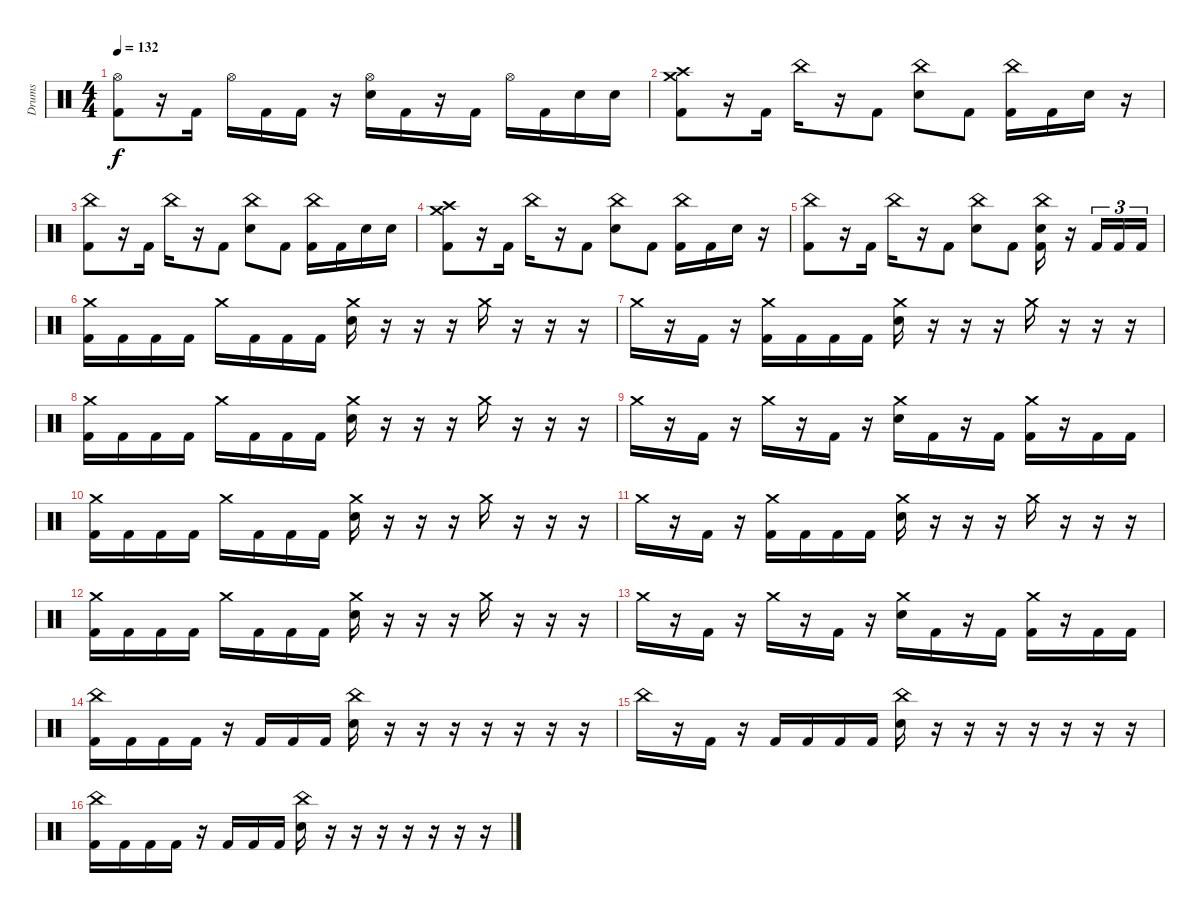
\track ("Drums" "Drums") {instrument percussion}
\staff {score}
\articulation defaults
\ts (4 4)
\tempo 132
\clef neutral
\ks c
("Hi-Hat (open)" "Kick (hit) 2").8{dy f} r.16 "Kick (hit) 2".16 "Hi-Hat (open)".16 "Kick (hit) 2".16 "Kick (hit) 2".16 r.16 ("Hi-Hat (open)" "Electric Snare (hit)").16 "Kick (hit) 2".16 r.16 "Kick (hit) 2".16 "Hi-Hat (open)".16 "Kick (hit) 2".16 "Electric Snare (hit)".16 "Electric Snare (hit)".16 |
("Crash medium (hit)" "Crash high (hit)" "Kick (hit) 2").8 r.16 "Kick (hit) 2".16 "China (hit)".16 r.16 "Kick (hit) 2".8 ("China (hit)" "Electric Snare (hit)").8 "Kick (hit) 2".8 ("China (hit)" "Kick (hit) 2").16 "Kick (hit) 2".16 "Electric Snare (hit)".16 r.16 |
("China (hit)" "Kick (hit) 2").8 r.16 "Kick (hit) 2".16 "China (hit)".16 r.16 "Kick (hit) 2".8 ("China (hit)" "Electric Snare (hit)").8 "Kick (hit) 2".8 ("China (hit)" "Kick (hit) 2").16 "Kick (hit) 2".16 "Electric Snare (hit)".16 "Electric Snare (hit)".16 |
("Crash medium (hit)" "Crash high (hit)" "Kick (hit) 2").8 r.16 "Kick (hit) 2".16 "China (hit)".16 r.16 "Kick (hit) 2".8 ("China (hit)" "Electric Snare (hit)").8 "Kick (hit) 2".8 ("China (hit)" "Kick (hit) 2").16 "Kick (hit) 2".16 "Electric Snare (hit)".16 r.16 |
("China (hit)" "Kick (hit) 2").8 r.16 "Kick (hit) 2".16 "China (hit)".16 r.16 "Kick (hit) 2".8 ("China (hit)" "Electric Snare (hit)").8 "Kick (hit) 2".8 ("China (hit)" "Electric Snare (hit)" "Kick (hit) 2").16 r.16 "Kick (hit) 2".16{tu (3 2)} "Kick (hit) 2".16{tu (3 2)} "Kick (hit) 2".16{tu (3 2)} |
("Crash medium (hit)" "Kick (hit) 2").16 "Kick (hit) 2".16 "Kick (hit) 2".16 "Kick (hit) 2".16 "Crash medium (hit)".16 "Kick (hit) 2".16 "Kick (hit) 2".16 "Kick (hit) 2".16 ("Crash medium (hit)" "Electric Snare (hit)").16 r.16 r.16 r.16 "Crash medium (hit)".16 r.16 r.16 r.16 |
"Crash medium (hit)".16 r.16 "Kick (hit) 2".16 r.16 ("Crash medium (hit)" "Kick (hit) 2").16 "Kick (hit) 2".16 "Kick (hit) 2".16 "Kick (hit) 2".16 ("Crash medium (hit)" "Electric Snare (hit)").16 r.16 r.16 r.16 "Crash medium (hit)".16 r.16 r.16 r.16 |
("Crash medium (hit)" "Kick (hit) 2").16 "Kick (hit) 2".16 "Kick (hit) 2".16 "Kick (hit) 2".16 "Crash medium (hit)".16 "Kick (hit) 2".16 "Kick (hit) 2".16 "Kick (hit) 2".16 ("Crash medium (hit)" "Electric Snare (hit)").16 r.16 r.16 r.16 "Crash medium (hit)".16 r.16 r.16 r.16 |
"Crash medium (hit)".16 r.16 "Kick (hit) 2".16 r.16 "Crash medium (hit)".16 r.16 "Kick (hit) 2".16 r.16 ("Crash medium (hit)" "Electric Snare (hit)").16 "Kick (hit) 2".16 r.16 "Kick (hit) 2".16 ("Crash medium (hit)" "Kick (hit) 2").16 r.16 "Kick (hit) 2".16 "Kick (hit) 2".16 |
("Crash medium (hit)" "Kick (hit) 2").16 "Kick (hit) 2".16 "Kick (hit) 2".16 "Kick (hit) 2".16 "Crash medium (hit)".16 "Kick (hit) 2".16 "Kick (hit) 2".16 "Kick (hit) 2".16 ("Crash medium (hit)" "Electric Snare (hit)").16 r.16 r.16 r.16 "Crash medium (hit)".16 r.16 r.16 r.16 |
"Crash medium (hit)".16 r.16 "Kick (hit) 2".16 r.16 ("Crash medium (hit)" "Kick (hit) 2").16 "Kick (hit) 2".16 "Kick (hit) 2".16 "Kick (hit) 2".16 ("Crash medium (hit)" "Electric Snare (hit)").16 r.16 r.16 r.16 "Crash medium (hit)".16 r.16 r.16 r.16 |
("Crash medium (hit)" "Kick (hit) 2").16 "Kick (hit) 2".16 "Kick (hit) 2".16 "Kick (hit) 2".16 "Crash medium (hit)".16 "Kick (hit) 2".16 "Kick (hit) 2".16 "Kick (hit) 2".16 ("Crash medium (hit)" "Electric Snare (hit)").16 r.16 r.16 r.16 "Crash medium (hit)".16 r.16 r.16 r.16 |
"Crash medium (hit)".16 r.16 "Kick (hit) 2".16 r.16 "Crash medium (hit)".16 r.16 "Kick (hit) 2".16 r.16 ("Crash medium (hit)" "Electric Snare (hit)").16 "Kick (hit) 2".16 r.16 "Kick (hit) 2".16 ("Crash medium (hit)" "Kick (hit) 2").16 r.16 "Kick (hit) 2".16 "Kick (hit) 2".16 |
("China (hit)" "Kick (hit) 2").16 "Kick (hit) 2".16 "Kick (hit) 2".16 "Kick (hit) 2".16 r.16 "Kick (hit) 2".16 "Kick (hit) 2".16 "Kick (hit) 2".16 ("China (hit)" "Electric Snare (hit)").16 r.16 r.16 r.16 r.16 r.16 r.16 r.16 |
"China (hit)".16 r.16 "Kick (hit) 2".16 r.16 "Kick (hit) 2".16 "Kick (hit) 2".16 "Kick (hit) 2".16 "Kick (hit) 2".16 ("China (hit)" "Electric Snare (hit)").16 r.16 r.16 r.16 r.16 r.16 r.16 r.16 |
("China (hit)" "Kick (hit) 2").16 "Kick (hit) 2".16 "Kick (hit) 2".16 "Kick (hit) 2".16 r.16 "Kick (hit) 2".16 "Kick (hit) 2".16 "Kick (hit) 2".16 ("China (hit)" "Electric Snare (hit)").16 r.16 r.16 r.16 r.16 r.16 r.16 r.16
